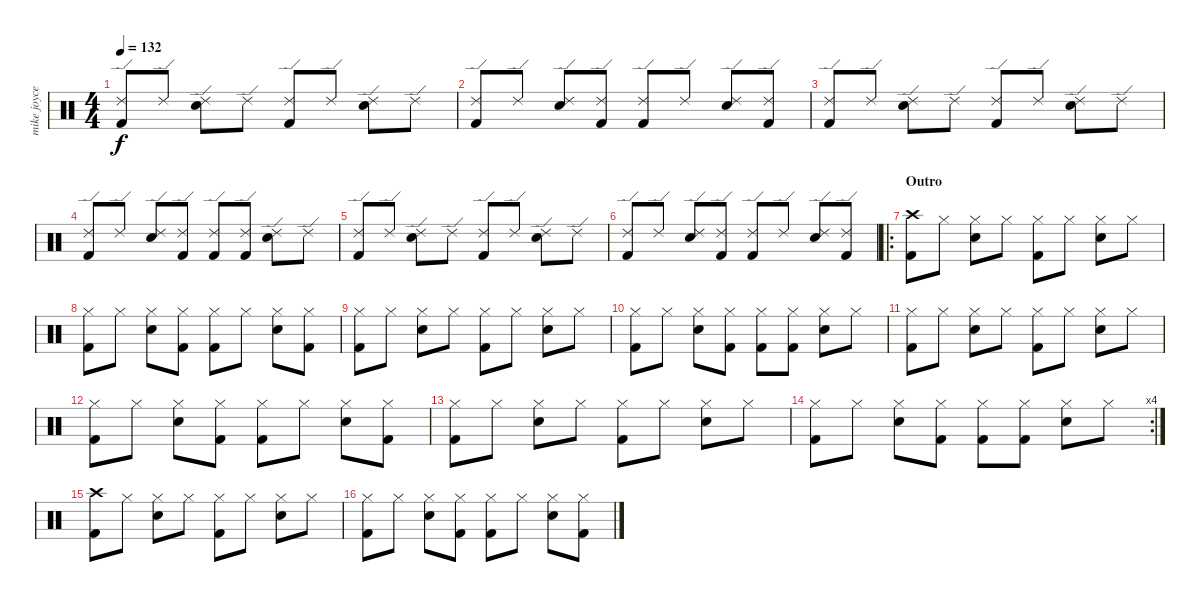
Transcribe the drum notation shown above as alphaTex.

\track ("mike joyce" "mike joyce") {instrument percussion}
\staff {score}
\articulation defaults
\ts (4 4)
\tempo 132
\clef neutral
\ks c
("Ride (edge) 2" "Kick (hit) 2").8{dy f} "Ride (edge) 2".8 ("Ride (edge) 2" "Snare (hit) 2").8 "Ride (edge) 2".8 ("Ride (edge) 2" "Kick (hit) 2").8 "Ride (edge) 2".8 ("Ride (edge) 2" "Snare (hit) 2").8 "Ride (edge) 2".8 |
("Ride (edge) 2" "Kick (hit) 2").8 "Ride (edge) 2".8 ("Ride (edge) 2" "Snare (hit) 2").8 ("Ride (edge) 2" "Kick (hit) 2").8 ("Ride (edge) 2" "Kick (hit) 2").8 "Ride (edge) 2".8 ("Ride (edge) 2" "Snare (hit) 2").8 ("Ride (edge) 2" "Kick (hit) 2").8 |
("Ride (edge) 2" "Kick (hit) 2").8 "Ride (edge) 2".8 ("Ride (edge) 2" "Snare (hit) 2").8 "Ride (edge) 2".8 ("Ride (edge) 2" "Kick (hit) 2").8 "Ride (edge) 2".8 ("Ride (edge) 2" "Snare (hit) 2").8 "Ride (edge) 2".8 |
("Ride (edge) 2" "Kick (hit) 2").8 "Ride (edge) 2".8 ("Ride (edge) 2" "Snare (hit) 2").8 ("Ride (edge) 2" "Kick (hit) 2").8 ("Ride (edge) 2" "Kick (hit) 2").8 ("Ride (edge) 2" "Kick (hit) 2").8 ("Ride (edge) 2" "Snare (hit) 2").8 "Ride (edge) 2".8 |
("Ride (edge) 2" "Kick (hit) 2").8 "Ride (edge) 2".8 ("Ride (edge) 2" "Snare (hit) 2").8 "Ride (edge) 2".8 ("Ride (edge) 2" "Kick (hit) 2").8 "Ride (edge) 2".8 ("Ride (edge) 2" "Snare (hit) 2").8 "Ride (edge) 2".8 |
("Ride (edge) 2" "Kick (hit) 2").8 "Ride (edge) 2".8 ("Ride (edge) 2" "Snare (hit) 2").8 ("Ride (edge) 2" "Kick (hit) 2").8 ("Ride (edge) 2" "Kick (hit) 2").8 "Ride (edge) 2".8 ("Ride (edge) 2" "Snare (hit) 2").8 ("Ride (edge) 2" "Kick (hit) 2").8 |
\ro
\section ("" "Outro")
("Crash high (hit)" "Kick (hit) 2").8 "Hi-Hat (closed)".8 ("Hi-Hat (closed)" "Snare (hit) 2").8 "Hi-Hat (closed)".8 ("Hi-Hat (closed)" "Kick (hit) 2").8 "Hi-Hat (closed)".8 ("Hi-Hat (closed)" "Snare (hit) 2").8 "Hi-Hat (closed)".8 |
("Hi-Hat (closed)" "Kick (hit) 2").8 "Hi-Hat (closed)".8 ("Hi-Hat (closed)" "Snare (hit) 2").8 ("Hi-Hat (closed)" "Kick (hit) 2").8 ("Hi-Hat (closed)" "Kick (hit) 2").8 "Hi-Hat (closed)".8 ("Hi-Hat (closed)" "Snare (hit) 2").8 ("Hi-Hat (closed)" "Kick (hit) 2").8 |
("Hi-Hat (closed)" "Kick (hit) 2").8 "Hi-Hat (closed)".8 ("Hi-Hat (closed)" "Snare (hit) 2").8 "Hi-Hat (closed)".8 ("Hi-Hat (closed)" "Kick (hit) 2").8 "Hi-Hat (closed)".8 ("Hi-Hat (closed)" "Snare (hit) 2").8 "Hi-Hat (closed)".8 |
("Hi-Hat (closed)" "Kick (hit) 2").8 "Hi-Hat (closed)".8 ("Hi-Hat (closed)" "Snare (hit) 2").8 ("Hi-Hat (closed)" "Kick (hit) 2").8 ("Hi-Hat (closed)" "Kick (hit) 2").8 ("Hi-Hat (closed)" "Kick (hit) 2").8 ("Hi-Hat (closed)" "Snare (hit) 2").8 "Hi-Hat (closed)".8 |
("Hi-Hat (closed)" "Kick (hit) 2").8 "Hi-Hat (closed)".8 ("Hi-Hat (closed)" "Snare (hit) 2").8 "Hi-Hat (closed)".8 ("Hi-Hat (closed)" "Kick (hit) 2").8 "Hi-Hat (closed)".8 ("Hi-Hat (closed)" "Snare (hit) 2").8 "Hi-Hat (closed)".8 |
("Hi-Hat (closed)" "Kick (hit) 2").8 "Hi-Hat (closed)".8 ("Hi-Hat (closed)" "Snare (hit) 2").8 ("Hi-Hat (closed)" "Kick (hit) 2").8 ("Hi-Hat (closed)" "Kick (hit) 2").8 "Hi-Hat (closed)".8 ("Hi-Hat (closed)" "Snare (hit) 2").8 ("Hi-Hat (closed)" "Kick (hit) 2").8 |
("Hi-Hat (closed)" "Kick (hit) 2").8 "Hi-Hat (closed)".8 ("Hi-Hat (closed)" "Snare (hit) 2").8 "Hi-Hat (closed)".8 ("Hi-Hat (closed)" "Kick (hit) 2").8 "Hi-Hat (closed)".8 ("Hi-Hat (closed)" "Snare (hit) 2").8 "Hi-Hat (closed)".8 |
\rc 4
("Hi-Hat (closed)" "Kick (hit) 2").8 "Hi-Hat (closed)".8 ("Hi-Hat (closed)" "Snare (hit) 2").8 ("Hi-Hat (closed)" "Kick (hit) 2").8 ("Hi-Hat (closed)" "Kick (hit) 2").8 ("Hi-Hat (closed)" "Kick (hit) 2").8 ("Hi-Hat (closed)" "Snare (hit) 2").8 "Hi-Hat (closed)".8 |
("Crash high (hit)" "Kick (hit) 2").8 "Hi-Hat (closed)".8 ("Hi-Hat (closed)" "Snare (hit) 2").8 "Hi-Hat (closed)".8 ("Hi-Hat (closed)" "Kick (hit) 2").8 "Hi-Hat (closed)".8 ("Hi-Hat (closed)" "Snare (hit) 2").8 "Hi-Hat (closed)".8 |
("Hi-Hat (closed)" "Kick (hit) 2").8 "Hi-Hat (closed)".8 ("Hi-Hat (closed)" "Snare (hit) 2").8 ("Hi-Hat (closed)" "Kick (hit) 2").8 ("Hi-Hat (closed)" "Kick (hit) 2").8 "Hi-Hat (closed)".8 ("Hi-Hat (closed)" "Snare (hit) 2").8 ("Hi-Hat (closed)" "Kick (hit) 2").8
